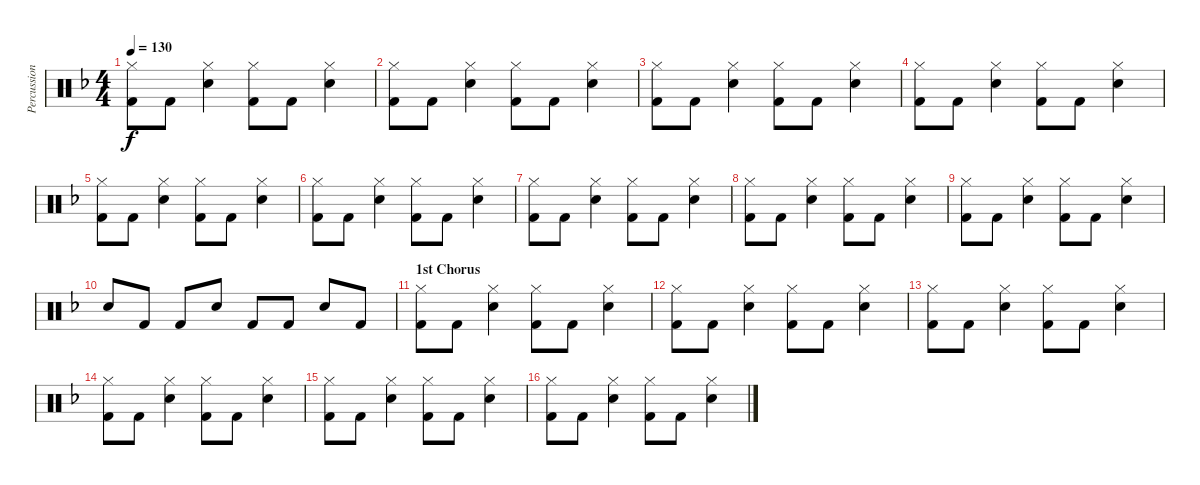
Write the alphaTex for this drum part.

\track ("Percussion" "Percussion") {instrument percussion}
\staff {score}
\articulation defaults
\ts (4 4)
\tempo 130
\clef neutral
\ks dminor
("Hi-Hat (closed)" "Kick (hit) 2").8{dy f} "Kick (hit) 2".8 ("Hi-Hat (closed)" "Snare (hit) 2").4 ("Hi-Hat (closed)" "Kick (hit) 2").8 "Kick (hit) 2".8 ("Hi-Hat (closed)" "Snare (hit) 2").4 |
("Hi-Hat (closed)" "Kick (hit) 2").8 "Kick (hit) 2".8 ("Hi-Hat (closed)" "Snare (hit) 2").4 ("Hi-Hat (closed)" "Kick (hit) 2").8 "Kick (hit) 2".8 ("Hi-Hat (closed)" "Snare (hit) 2").4 |
("Hi-Hat (closed)" "Kick (hit) 2").8 "Kick (hit) 2".8 ("Hi-Hat (closed)" "Snare (hit) 2").4 ("Hi-Hat (closed)" "Kick (hit) 2").8 "Kick (hit) 2".8 ("Hi-Hat (closed)" "Snare (hit) 2").4 |
("Hi-Hat (closed)" "Kick (hit) 2").8 "Kick (hit) 2".8 ("Hi-Hat (closed)" "Snare (hit) 2").4 ("Hi-Hat (closed)" "Kick (hit) 2").8 "Kick (hit) 2".8 ("Hi-Hat (closed)" "Snare (hit) 2").4 |
("Hi-Hat (closed)" "Kick (hit) 2").8 "Kick (hit) 2".8 ("Hi-Hat (closed)" "Snare (hit) 2").4 ("Hi-Hat (closed)" "Kick (hit) 2").8 "Kick (hit) 2".8 ("Hi-Hat (closed)" "Snare (hit) 2").4 |
("Hi-Hat (closed)" "Kick (hit) 2").8 "Kick (hit) 2".8 ("Hi-Hat (closed)" "Snare (hit) 2").4 ("Hi-Hat (closed)" "Kick (hit) 2").8 "Kick (hit) 2".8 ("Hi-Hat (closed)" "Snare (hit) 2").4 |
("Hi-Hat (closed)" "Kick (hit) 2").8 "Kick (hit) 2".8 ("Hi-Hat (closed)" "Snare (hit) 2").4 ("Hi-Hat (closed)" "Kick (hit) 2").8 "Kick (hit) 2".8 ("Hi-Hat (closed)" "Snare (hit) 2").4 |
("Hi-Hat (closed)" "Kick (hit) 2").8 "Kick (hit) 2".8 ("Hi-Hat (closed)" "Snare (hit) 2").4 ("Hi-Hat (closed)" "Kick (hit) 2").8 "Kick (hit) 2".8 ("Hi-Hat (closed)" "Snare (hit) 2").4 |
("Hi-Hat (closed)" "Kick (hit) 2").8 "Kick (hit) 2".8 ("Hi-Hat (closed)" "Snare (hit) 2").4 ("Hi-Hat (closed)" "Kick (hit) 2").8 "Kick (hit) 2".8 ("Hi-Hat (closed)" "Snare (hit) 2").4 |
"Snare (hit) 2".8 "Kick (hit) 2".8 "Kick (hit) 2".8 "Snare (hit) 2".8 "Kick (hit) 2".8 "Kick (hit) 2".8 "Snare (hit) 2".8 "Kick (hit) 2".8 |
\section ("" "1st Chorus")
("Hi-Hat (closed)" "Kick (hit) 2").8 "Kick (hit) 2".8 ("Hi-Hat (closed)" "Snare (hit) 2").4 ("Hi-Hat (closed)" "Kick (hit) 2").8 "Kick (hit) 2".8 ("Hi-Hat (closed)" "Snare (hit) 2").4 |
("Hi-Hat (closed)" "Kick (hit) 2").8 "Kick (hit) 2".8 ("Hi-Hat (closed)" "Snare (hit) 2").4 ("Hi-Hat (closed)" "Kick (hit) 2").8 "Kick (hit) 2".8 ("Hi-Hat (closed)" "Snare (hit) 2").4 |
("Hi-Hat (closed)" "Kick (hit) 2").8 "Kick (hit) 2".8 ("Hi-Hat (closed)" "Snare (hit) 2").4 ("Hi-Hat (closed)" "Kick (hit) 2").8 "Kick (hit) 2".8 ("Hi-Hat (closed)" "Snare (hit) 2").4 |
("Hi-Hat (closed)" "Kick (hit) 2").8 "Kick (hit) 2".8 ("Hi-Hat (closed)" "Snare (hit) 2").4 ("Hi-Hat (closed)" "Kick (hit) 2").8 "Kick (hit) 2".8 ("Hi-Hat (closed)" "Snare (hit) 2").4 |
("Hi-Hat (closed)" "Kick (hit) 2").8 "Kick (hit) 2".8 ("Hi-Hat (closed)" "Snare (hit) 2").4 ("Hi-Hat (closed)" "Kick (hit) 2").8 "Kick (hit) 2".8 ("Hi-Hat (closed)" "Snare (hit) 2").4 |
("Hi-Hat (closed)" "Kick (hit) 2").8 "Kick (hit) 2".8 ("Hi-Hat (closed)" "Snare (hit) 2").4 ("Hi-Hat (closed)" "Kick (hit) 2").8 "Kick (hit) 2".8 ("Hi-Hat (closed)" "Snare (hit) 2").4
